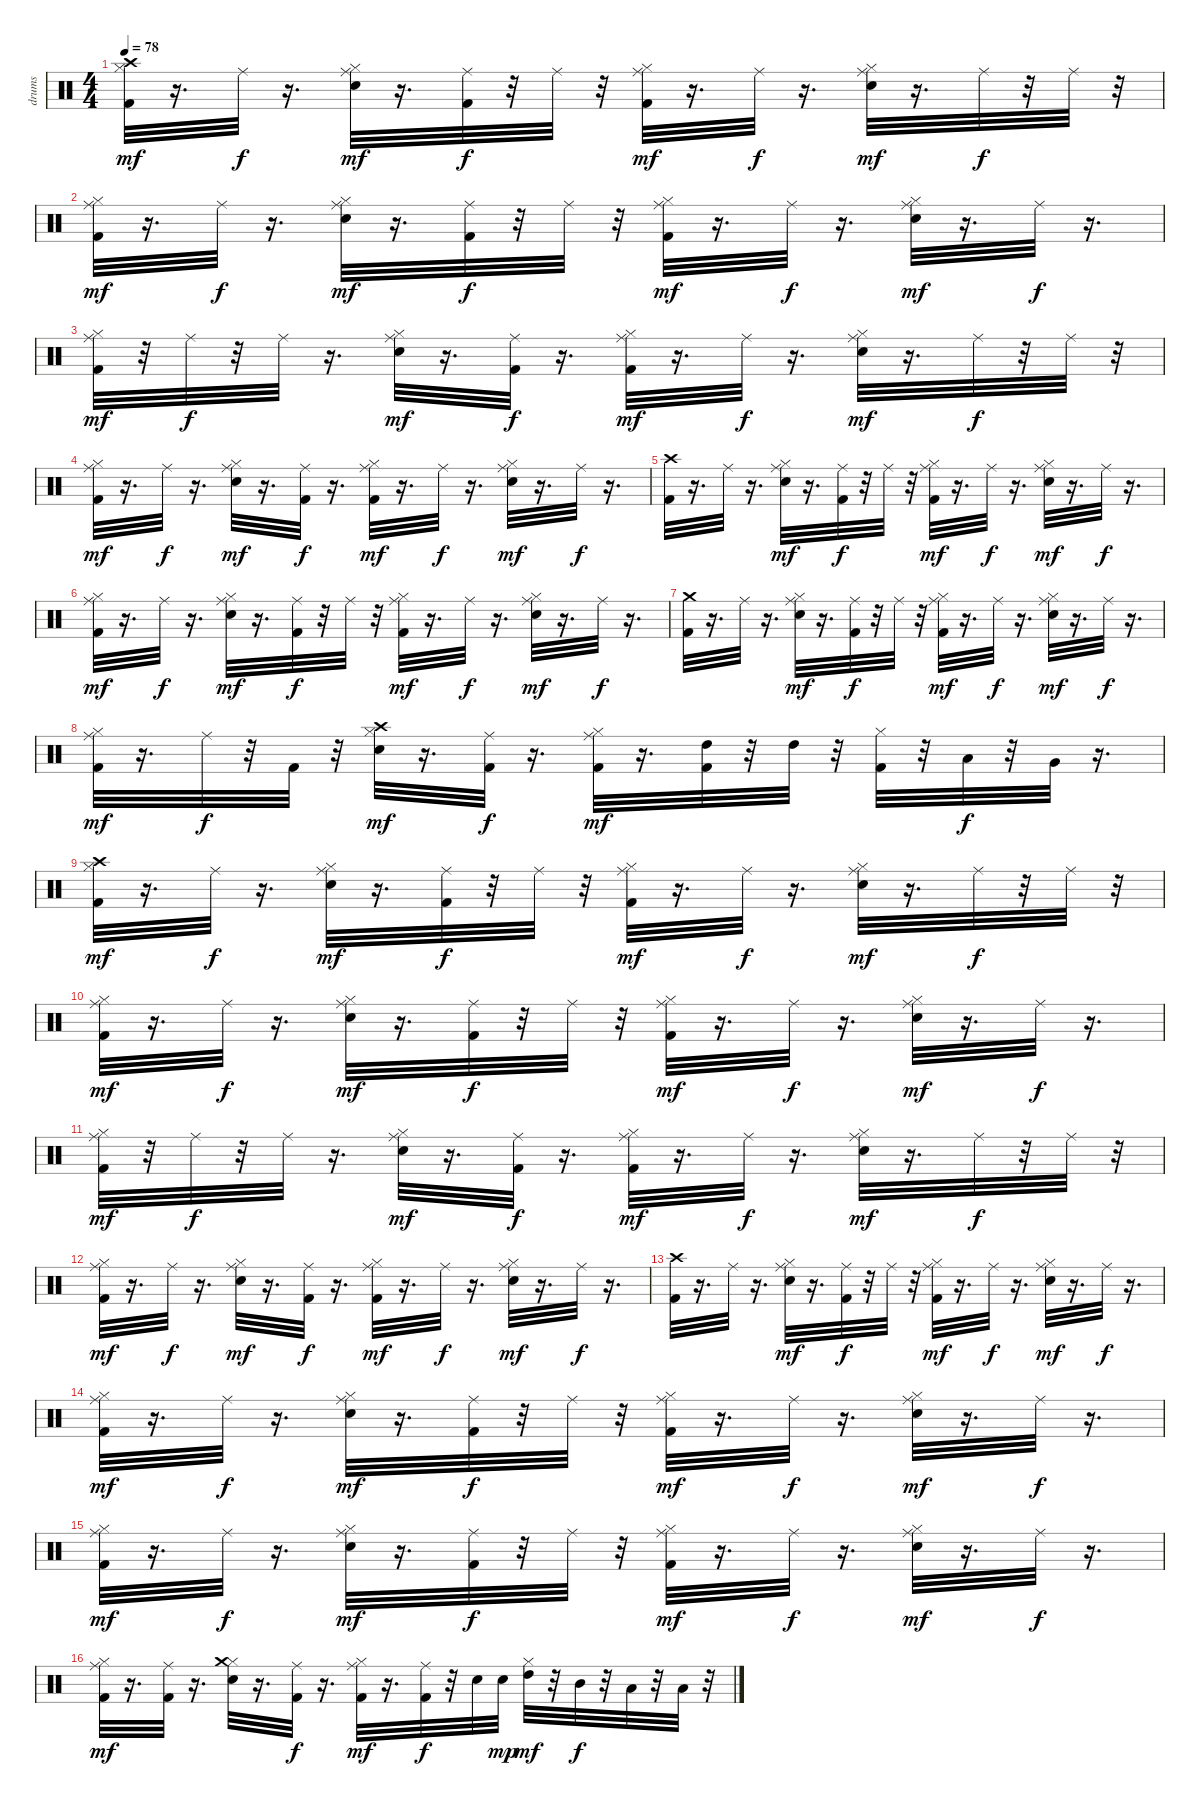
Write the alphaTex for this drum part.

\track ("drums" "drums") {instrument percussion}
\staff {score}
\articulation defaults
\ts (4 4)
\tempo 78
\clef neutral
\ks c
("Hi-Hat (closed)" "Kick (hit) 2" "Crash high (hit)").32{dy mf} r.16{d} "Ride (middle)".32{dy f} r.16{d} ("Hi-Hat (closed)" "Ride (middle)" "Electric Snare (hit)").32{dy mf} r.16{d} ("Ride (middle)" "Kick (hit) 2").32{dy f} r.32 "Ride (middle)".32 r.32 ("Hi-Hat (closed)" "Ride (middle)" "Kick (hit) 2").32{dy mf} r.16{d} "Ride (middle)".32{dy f} r.16{d} ("Hi-Hat (closed)" "Ride (middle)" "Electric Snare (hit)").32{dy mf} r.16{d} "Ride (middle)".32{dy f} r.32 "Ride (middle)".32 r.32 |
("Hi-Hat (closed)" "Ride (middle)" "Kick (hit) 2").32{dy mf} r.16{d} "Ride (middle)".32{dy f} r.16{d} ("Hi-Hat (closed)" "Ride (middle)" "Electric Snare (hit)").32{dy mf} r.16{d} ("Ride (middle)" "Kick (hit) 2").32{dy f} r.32 "Ride (middle)".32 r.32 ("Hi-Hat (closed)" "Ride (middle)" "Kick (hit) 2").32{dy mf} r.16{d} "Ride (middle)".32{dy f} r.16{d} ("Hi-Hat (closed)" "Ride (middle)" "Electric Snare (hit)").32{dy mf} r.16{d} "Ride (middle)".32{dy f} r.16{d} |
("Ride (middle)" "Hi-Hat (closed)" "Kick (hit) 2").32{dy mf} r.32 "Ride (middle)".32{dy f} r.32 "Ride (middle)".32 r.16{d} ("Ride (middle)" "Hi-Hat (closed)" "Electric Snare (hit)").32{dy mf} r.16{d} ("Ride (middle)" "Kick (hit) 2").32{dy f} r.16{d} ("Ride (middle)" "Hi-Hat (closed)" "Kick (hit) 2").32{dy mf} r.16{d} "Ride (middle)".32{dy f} r.16{d} ("Ride (middle)" "Hi-Hat (closed)" "Electric Snare (hit)").32{dy mf} r.16{d} "Ride (middle)".32{dy f} r.32 "Ride (middle)".32 r.32 |
("Ride (middle)" "Hi-Hat (closed)" "Kick (hit) 2").32{dy mf} r.16{d} "Ride (middle)".32{dy f} r.16{d} ("Ride (middle)" "Hi-Hat (closed)" "Electric Snare (hit)").32{dy mf} r.16{d} ("Ride (middle)" "Kick (hit) 2").32{dy f} r.16{d} ("Ride (middle)" "Hi-Hat (closed)" "Kick (hit) 2").32{dy mf} r.16{d} "Ride (middle)".32{dy f} r.16{d} ("Ride (middle)" "Hi-Hat (closed)" "Electric Snare (hit)").32{dy mf} r.16{d} "Ride (middle)".32{dy f} r.16{d} |
("Crash high (hit)" "Kick (hit) 2").32 r.16{d} "Ride (middle)".32 r.16{d} ("Ride (middle)" "Hi-Hat (closed)" "Electric Snare (hit)").32{dy mf} r.16{d} ("Ride (middle)" "Kick (hit) 2").32{dy f} r.32 "Ride (middle)".32 r.32 ("Ride (middle)" "Hi-Hat (closed)" "Kick (hit) 2").32{dy mf} r.16{d} "Ride (middle)".32{dy f} r.16{d} ("Ride (middle)" "Hi-Hat (closed)" "Electric Snare (hit)").32{dy mf} r.16{d} "Ride (middle)".32{dy f} r.16{d} |
("Ride (middle)" "Hi-Hat (closed)" "Kick (hit) 2").32{dy mf} r.16{d} "Ride (middle)".32{dy f} r.16{d} ("Ride (middle)" "Hi-Hat (closed)" "Electric Snare (hit)").32{dy mf} r.16{d} ("Ride (middle)" "Kick (hit) 2").32{dy f} r.32 "Ride (middle)".32 r.32 ("Ride (middle)" "Hi-Hat (closed)" "Kick (hit) 2").32{dy mf} r.16{d} "Ride (middle)".32{dy f} r.16{d} ("Ride (middle)" "Hi-Hat (closed)" "Electric Snare (hit)").32{dy mf} r.16{d} "Ride (middle)".32{dy f} r.16{d} |
("Crash medium (hit)" "Kick (hit) 2").32 r.16{d} "Ride (middle)".32 r.16{d} ("Ride (middle)" "Hi-Hat (closed)" "Electric Snare (hit)").32{dy mf} r.16{d} ("Ride (middle)" "Kick (hit) 2").32{dy f} r.32 "Ride (middle)".32 r.32 ("Hi-Hat (closed)" "Ride (middle)" "Kick (hit) 2").32{dy mf} r.16{d} "Ride (middle)".32{dy f} r.16{d} ("Ride (middle)" "Electric Snare (hit)" "Hi-Hat (closed)").32{dy mf} r.16{d} "Ride (middle)".32{dy f} r.16{d} |
("Ride (middle)" "Hi-Hat (closed)" "Kick (hit) 2").32{dy mf} r.16{d} "Ride (middle)".32{dy f} r.32 "Kick (hit) 2".32 r.32 ("Hi-Hat (closed)" "Electric Snare (hit)" "Crash high (hit)").32{dy mf} r.16{d} ("Ride (middle)" "Kick (hit) 2").32{dy f} r.16{d} ("Ride (middle)" "Hi-Hat (closed)" "Kick (hit) 2").32{dy mf} r.16{d} ("Kick (hit) 2" "High Tom (hit)").32 r.32 "High Tom (hit)".32 r.32 ("Kick (hit) 2" "Hi-Hat (closed)").32 r.32 "Low Tom (hit)".32{dy f} r.32 "Very Low Tom (hit)".32 r.16{d} |
("Hi-Hat (closed)" "Kick (hit) 2" "Crash high (hit)").32{dy mf} r.16{d} "Ride (middle)".32{dy f} r.16{d} ("Hi-Hat (closed)" "Ride (middle)" "Electric Snare (hit)").32{dy mf} r.16{d} ("Ride (middle)" "Kick (hit) 2").32{dy f} r.32 "Ride (middle)".32 r.32 ("Hi-Hat (closed)" "Ride (middle)" "Kick (hit) 2").32{dy mf} r.16{d} "Ride (middle)".32{dy f} r.16{d} ("Hi-Hat (closed)" "Ride (middle)" "Electric Snare (hit)").32{dy mf} r.16{d} "Ride (middle)".32{dy f} r.32 "Ride (middle)".32 r.32 |
("Hi-Hat (closed)" "Ride (middle)" "Kick (hit) 2").32{dy mf} r.16{d} "Ride (middle)".32{dy f} r.16{d} ("Hi-Hat (closed)" "Ride (middle)" "Electric Snare (hit)").32{dy mf} r.16{d} ("Ride (middle)" "Kick (hit) 2").32{dy f} r.32 "Ride (middle)".32 r.32 ("Hi-Hat (closed)" "Ride (middle)" "Kick (hit) 2").32{dy mf} r.16{d} "Ride (middle)".32{dy f} r.16{d} ("Hi-Hat (closed)" "Ride (middle)" "Electric Snare (hit)").32{dy mf} r.16{d} "Ride (middle)".32{dy f} r.16{d} |
("Ride (middle)" "Hi-Hat (closed)" "Kick (hit) 2").32{dy mf} r.32 "Ride (middle)".32{dy f} r.32 "Ride (middle)".32 r.16{d} ("Ride (middle)" "Hi-Hat (closed)" "Electric Snare (hit)").32{dy mf} r.16{d} ("Ride (middle)" "Kick (hit) 2").32{dy f} r.16{d} ("Ride (middle)" "Hi-Hat (closed)" "Kick (hit) 2").32{dy mf} r.16{d} "Ride (middle)".32{dy f} r.16{d} ("Ride (middle)" "Hi-Hat (closed)" "Electric Snare (hit)").32{dy mf} r.16{d} "Ride (middle)".32{dy f} r.32 "Ride (middle)".32 r.32 |
("Ride (middle)" "Hi-Hat (closed)" "Kick (hit) 2").32{dy mf} r.16{d} "Ride (middle)".32{dy f} r.16{d} ("Ride (middle)" "Hi-Hat (closed)" "Electric Snare (hit)").32{dy mf} r.16{d} ("Ride (middle)" "Kick (hit) 2").32{dy f} r.16{d} ("Ride (middle)" "Hi-Hat (closed)" "Kick (hit) 2").32{dy mf} r.16{d} "Ride (middle)".32{dy f} r.16{d} ("Ride (middle)" "Hi-Hat (closed)" "Electric Snare (hit)").32{dy mf} r.16{d} "Ride (middle)".32{dy f} r.16{d} |
("Crash high (hit)" "Kick (hit) 2").32 r.16{d} "Ride (middle)".32 r.16{d} ("Ride (middle)" "Hi-Hat (closed)" "Electric Snare (hit)").32{dy mf} r.16{d} ("Ride (middle)" "Kick (hit) 2").32{dy f} r.32 "Ride (middle)".32 r.32 ("Ride (middle)" "Hi-Hat (closed)" "Kick (hit) 2").32{dy mf} r.16{d} "Ride (middle)".32{dy f} r.16{d} ("Ride (middle)" "Hi-Hat (closed)" "Electric Snare (hit)").32{dy mf} r.16{d} "Ride (middle)".32{dy f} r.16{d} |
("Ride (middle)" "Hi-Hat (closed)" "Kick (hit) 2").32{dy mf} r.16{d} "Ride (middle)".32{dy f} r.16{d} ("Ride (middle)" "Hi-Hat (closed)" "Electric Snare (hit)").32{dy mf} r.16{d} ("Ride (middle)" "Kick (hit) 2").32{dy f} r.32 "Ride (middle)".32 r.32 ("Ride (middle)" "Hi-Hat (closed)" "Kick (hit) 2").32{dy mf} r.16{d} "Ride (middle)".32{dy f} r.16{d} ("Ride (middle)" "Hi-Hat (closed)" "Electric Snare (hit)").32{dy mf} r.16{d} "Ride (middle)".32{dy f} r.16{d} |
("Hi-Hat (closed)" "Ride (middle)" "Kick (hit) 2").32{dy mf} r.16{d} "Ride (middle)".32{dy f} r.16{d} ("Ride (middle)" "Hi-Hat (closed)" "Electric Snare (hit)").32{dy mf} r.16{d} ("Ride (middle)" "Kick (hit) 2").32{dy f} r.32 "Ride (middle)".32 r.32 ("Hi-Hat (closed)" "Ride (middle)" "Kick (hit) 2").32{dy mf} r.16{d} "Ride (middle)".32{dy f} r.16{d} ("Hi-Hat (closed)" "Ride (middle)" "Electric Snare (hit)").32{dy mf} r.16{d} "Ride (middle)".32{dy f} r.16{d} |
("Ride (middle)" "Hi-Hat (closed)" "Kick (hit) 2").32{dy mf} r.16{d} ("Kick (hit) 2" "Ride (middle)").32 r.16{d} ("Hi-Hat (closed)" "Electric Snare (hit)" "Crash medium (hit)").32 r.16{d} ("Ride (middle)" "Kick (hit) 2").32{dy f} r.16{d} ("Ride (middle)" "Kick (hit) 2" "Hi-Hat (closed)").32{dy mf} r.16{d} ("Ride (middle)" "Kick (hit) 2").32{dy f} r.32 "Electric Snare (hit)".32 "Electric Snare (hit)".32{dy mp} ("High Tom (hit)" "Hi-Hat (closed)").32{dy mf} r.32 "Mid Tom (hit)".32{dy f} r.32 "Low Tom (hit)".32 r.32 "Low Floor Tom (hit)".32 r.32
